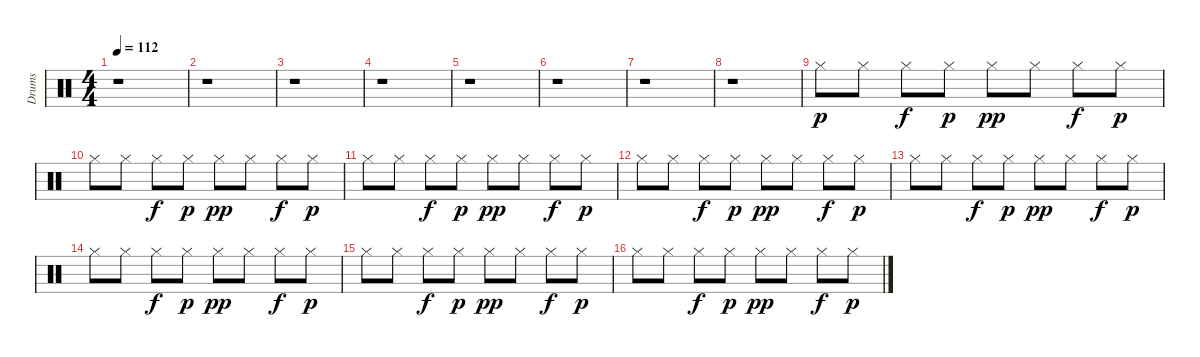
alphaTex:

\track ("Drums" "Drums") {instrument percussion}
\staff {score}
\articulation defaults
\ts (4 4)
\tempo 112
\clef neutral
\ks c
r.1{dy mf} |
r.1 |
r.1 |
r.1 |
r.1 |
r.1 |
r.1 |
r.1 |
"Hi-Hat (closed)".8{dy p} "Hi-Hat (closed)".8 "Hi-Hat (closed)".8{dy f} "Hi-Hat (closed)".8{dy p} "Hi-Hat (closed)".8{dy pp} "Hi-Hat (closed)".8 "Hi-Hat (closed)".8{dy f} "Hi-Hat (closed)".8{dy p} |
"Hi-Hat (closed)".8 "Hi-Hat (closed)".8 "Hi-Hat (closed)".8{dy f} "Hi-Hat (closed)".8{dy p} "Hi-Hat (closed)".8{dy pp} "Hi-Hat (closed)".8 "Hi-Hat (closed)".8{dy f} "Hi-Hat (closed)".8{dy p} |
"Hi-Hat (closed)".8 "Hi-Hat (closed)".8 "Hi-Hat (closed)".8{dy f} "Hi-Hat (closed)".8{dy p} "Hi-Hat (closed)".8{dy pp} "Hi-Hat (closed)".8 "Hi-Hat (closed)".8{dy f} "Hi-Hat (closed)".8{dy p} |
"Hi-Hat (closed)".8 "Hi-Hat (closed)".8 "Hi-Hat (closed)".8{dy f} "Hi-Hat (closed)".8{dy p} "Hi-Hat (closed)".8{dy pp} "Hi-Hat (closed)".8 "Hi-Hat (closed)".8{dy f} "Hi-Hat (closed)".8{dy p} |
"Hi-Hat (closed)".8 "Hi-Hat (closed)".8 "Hi-Hat (closed)".8{dy f} "Hi-Hat (closed)".8{dy p} "Hi-Hat (closed)".8{dy pp} "Hi-Hat (closed)".8 "Hi-Hat (closed)".8{dy f} "Hi-Hat (closed)".8{dy p} |
"Hi-Hat (closed)".8 "Hi-Hat (closed)".8 "Hi-Hat (closed)".8{dy f} "Hi-Hat (closed)".8{dy p} "Hi-Hat (closed)".8{dy pp} "Hi-Hat (closed)".8 "Hi-Hat (closed)".8{dy f} "Hi-Hat (closed)".8{dy p} |
"Hi-Hat (closed)".8 "Hi-Hat (closed)".8 "Hi-Hat (closed)".8{dy f} "Hi-Hat (closed)".8{dy p} "Hi-Hat (closed)".8{dy pp} "Hi-Hat (closed)".8 "Hi-Hat (closed)".8{dy f} "Hi-Hat (closed)".8{dy p} |
"Hi-Hat (closed)".8 "Hi-Hat (closed)".8 "Hi-Hat (closed)".8{dy f} "Hi-Hat (closed)".8{dy p} "Hi-Hat (closed)".8{dy pp} "Hi-Hat (closed)".8 "Hi-Hat (closed)".8{dy f} "Hi-Hat (closed)".8{dy p}
